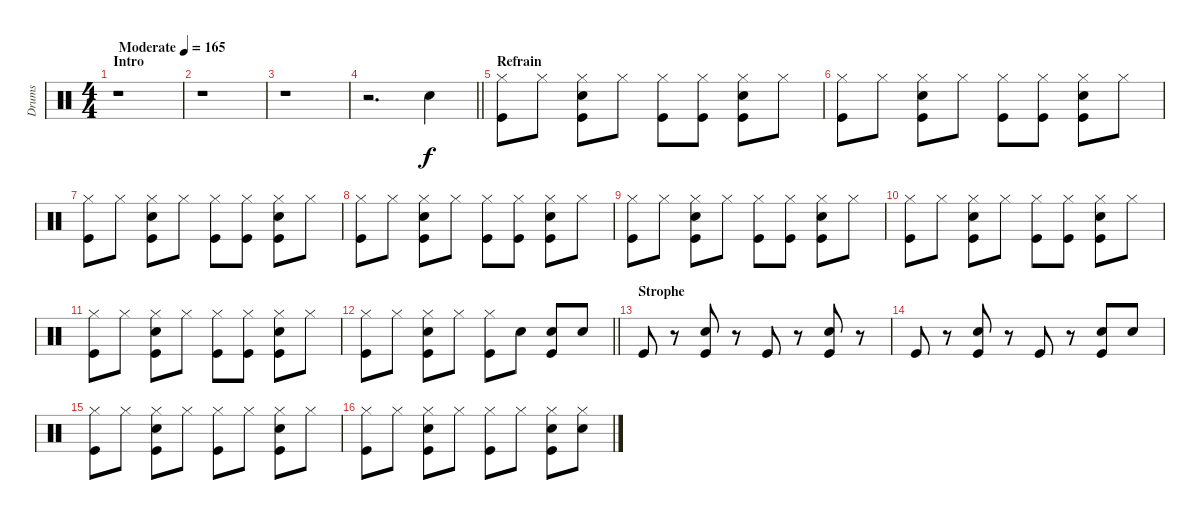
\track ("Drums" "Drums") {instrument percussion}
\staff {score}
\articulation defaults
\ts (4 4)
\section ("" "Intro")
\tempo (165 "Moderate")
\clef neutral
\ks c
r.1{dy f} |
r.1 |
r.1 |
\barLineRight lightlight
r.2{d} "Snare (hit) 2".4 |
\section ("" "Refrain")
("Hi-Hat (closed)" "Kick (hit)").8 "Hi-Hat (closed)".8 ("Hi-Hat (closed)" "Kick (hit)" "Snare (hit) 2").8 "Hi-Hat (closed)".8 ("Hi-Hat (closed)" "Kick (hit)").8 ("Hi-Hat (closed)" "Kick (hit)").8 ("Hi-Hat (closed)" "Kick (hit)" "Snare (hit) 2").8 "Hi-Hat (closed)".8 |
("Hi-Hat (closed)" "Kick (hit)").8 "Hi-Hat (closed)".8 ("Hi-Hat (closed)" "Kick (hit)" "Snare (hit) 2").8 "Hi-Hat (closed)".8 ("Hi-Hat (closed)" "Kick (hit)").8 ("Hi-Hat (closed)" "Kick (hit)").8 ("Hi-Hat (closed)" "Kick (hit)" "Snare (hit) 2").8 "Hi-Hat (closed)".8 |
("Hi-Hat (closed)" "Kick (hit)").8 "Hi-Hat (closed)".8 ("Hi-Hat (closed)" "Kick (hit)" "Snare (hit) 2").8 "Hi-Hat (closed)".8 ("Hi-Hat (closed)" "Kick (hit)").8 ("Hi-Hat (closed)" "Kick (hit)").8 ("Hi-Hat (closed)" "Kick (hit)" "Snare (hit) 2").8 "Hi-Hat (closed)".8 |
("Hi-Hat (closed)" "Kick (hit)").8 "Hi-Hat (closed)".8 ("Hi-Hat (closed)" "Kick (hit)" "Snare (hit) 2").8 "Hi-Hat (closed)".8 ("Hi-Hat (closed)" "Kick (hit)").8 ("Hi-Hat (closed)" "Kick (hit)").8 ("Hi-Hat (closed)" "Kick (hit)" "Snare (hit) 2").8 "Hi-Hat (closed)".8 |
("Hi-Hat (closed)" "Kick (hit)").8 "Hi-Hat (closed)".8 ("Hi-Hat (closed)" "Kick (hit)" "Snare (hit) 2").8 "Hi-Hat (closed)".8 ("Hi-Hat (closed)" "Kick (hit)").8 ("Hi-Hat (closed)" "Kick (hit)").8 ("Hi-Hat (closed)" "Kick (hit)" "Snare (hit) 2").8 "Hi-Hat (closed)".8 |
("Hi-Hat (closed)" "Kick (hit)").8 "Hi-Hat (closed)".8 ("Hi-Hat (closed)" "Kick (hit)" "Snare (hit) 2").8 "Hi-Hat (closed)".8 ("Hi-Hat (closed)" "Kick (hit)").8 ("Hi-Hat (closed)" "Kick (hit)").8 ("Hi-Hat (closed)" "Kick (hit)" "Snare (hit) 2").8 "Hi-Hat (closed)".8 |
("Hi-Hat (closed)" "Kick (hit)").8 "Hi-Hat (closed)".8 ("Hi-Hat (closed)" "Kick (hit)" "Snare (hit) 2").8 "Hi-Hat (closed)".8 ("Hi-Hat (closed)" "Kick (hit)").8 ("Hi-Hat (closed)" "Kick (hit)").8 ("Hi-Hat (closed)" "Kick (hit)" "Snare (hit) 2").8 "Hi-Hat (closed)".8 |
\barLineRight lightlight
("Hi-Hat (closed)" "Kick (hit)").8 "Hi-Hat (closed)".8 ("Hi-Hat (closed)" "Kick (hit)" "Snare (hit) 2").8 "Hi-Hat (closed)".8 ("Hi-Hat (closed)" "Kick (hit)").8 "Snare (hit) 2".8 ("Kick (hit)" "Snare (hit) 2").8 "Snare (hit) 2".8 |
\section ("" "Strophe")
"Kick (hit)".8 r.8 ("Kick (hit)" "Snare (hit) 2").8 r.8 "Kick (hit)".8 r.8 ("Kick (hit)" "Snare (hit) 2").8 r.8 |
"Kick (hit)".8 r.8 ("Kick (hit)" "Snare (hit) 2").8 r.8 "Kick (hit)".8 r.8 ("Kick (hit)" "Snare (hit) 2").8 "Snare (hit) 2".8 |
("Hi-Hat (closed)" "Kick (hit)").8 "Hi-Hat (closed)".8 ("Hi-Hat (closed)" "Kick (hit)" "Snare (hit) 2").8 "Hi-Hat (closed)".8 ("Hi-Hat (closed)" "Kick (hit)").8 "Hi-Hat (closed)".8 ("Hi-Hat (closed)" "Kick (hit)" "Snare (hit) 2").8 "Hi-Hat (closed)".8 |
("Hi-Hat (closed)" "Kick (hit)").8 "Hi-Hat (closed)".8 ("Hi-Hat (closed)" "Kick (hit)" "Snare (hit) 2").8 "Hi-Hat (closed)".8 ("Hi-Hat (closed)" "Kick (hit)").8 "Hi-Hat (closed)".8 ("Hi-Hat (closed)" "Kick (hit)" "Snare (hit) 2").8 ("Hi-Hat (closed)" "Snare (hit) 2").8
